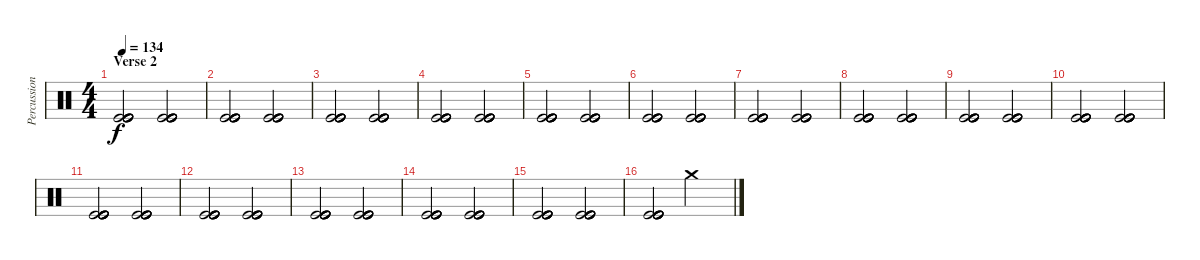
\track ("Percussion" "Percussion") {instrument percussion}
\staff {score}
\articulation defaults
\ts (4 4)
\section ("" "Verse 2")
\tempo 134
\clef neutral
\ks c
("Kick (hit)" "Kick (hit)" "Kick (hit)" "Kick (hit)" "Kick (hit)" "Kick (hit)").2{dy f} ("Kick (hit)" "Kick (hit)" "Kick (hit)" "Kick (hit)" "Kick (hit)" "Kick (hit)").2 |
("Kick (hit)" "Kick (hit)" "Kick (hit)" "Kick (hit)" "Kick (hit)" "Kick (hit)").2 ("Kick (hit)" "Kick (hit)" "Kick (hit)" "Kick (hit)" "Kick (hit)" "Kick (hit)").2 |
("Kick (hit)" "Kick (hit)" "Kick (hit)" "Kick (hit)" "Kick (hit)" "Kick (hit)").2 ("Kick (hit)" "Kick (hit)" "Kick (hit)" "Kick (hit)" "Kick (hit)" "Kick (hit)").2 |
("Kick (hit)" "Kick (hit)" "Kick (hit)" "Kick (hit)" "Kick (hit)" "Kick (hit)").2 ("Kick (hit)" "Kick (hit)" "Kick (hit)" "Kick (hit)" "Kick (hit)" "Kick (hit)").2 |
("Kick (hit)" "Kick (hit)" "Kick (hit)" "Kick (hit)" "Kick (hit)" "Kick (hit)").2 ("Kick (hit)" "Kick (hit)" "Kick (hit)" "Kick (hit)" "Kick (hit)" "Kick (hit)").2 |
("Kick (hit)" "Kick (hit)" "Kick (hit)" "Kick (hit)" "Kick (hit)" "Kick (hit)").2 ("Kick (hit)" "Kick (hit)" "Kick (hit)" "Kick (hit)" "Kick (hit)" "Kick (hit)").2 |
("Kick (hit)" "Kick (hit)" "Kick (hit)" "Kick (hit)" "Kick (hit)" "Kick (hit)").2 ("Kick (hit)" "Kick (hit)" "Kick (hit)" "Kick (hit)" "Kick (hit)" "Kick (hit)").2 |
("Kick (hit)" "Kick (hit)" "Kick (hit)" "Kick (hit)" "Kick (hit)" "Kick (hit)").2 ("Kick (hit)" "Kick (hit)" "Kick (hit)" "Kick (hit)" "Kick (hit)" "Kick (hit)").2 |
("Kick (hit)" "Kick (hit)" "Kick (hit)" "Kick (hit)" "Kick (hit)" "Kick (hit)").2 ("Kick (hit)" "Kick (hit)" "Kick (hit)" "Kick (hit)" "Kick (hit)" "Kick (hit)").2 |
("Kick (hit)" "Kick (hit)" "Kick (hit)" "Kick (hit)" "Kick (hit)" "Kick (hit)").2 ("Kick (hit)" "Kick (hit)" "Kick (hit)" "Kick (hit)" "Kick (hit)" "Kick (hit)").2 |
("Kick (hit)" "Kick (hit)" "Kick (hit)" "Kick (hit)" "Kick (hit)" "Kick (hit)").2 ("Kick (hit)" "Kick (hit)" "Kick (hit)" "Kick (hit)" "Kick (hit)" "Kick (hit)").2 |
("Kick (hit)" "Kick (hit)" "Kick (hit)" "Kick (hit)" "Kick (hit)" "Kick (hit)").2 ("Kick (hit)" "Kick (hit)" "Kick (hit)" "Kick (hit)" "Kick (hit)" "Kick (hit)").2 |
("Kick (hit)" "Kick (hit)" "Kick (hit)" "Kick (hit)" "Kick (hit)" "Kick (hit)").2 ("Kick (hit)" "Kick (hit)" "Kick (hit)" "Kick (hit)" "Kick (hit)" "Kick (hit)").2 |
("Kick (hit)" "Kick (hit)" "Kick (hit)" "Kick (hit)" "Kick (hit)" "Kick (hit)").2 ("Kick (hit)" "Kick (hit)" "Kick (hit)" "Kick (hit)" "Kick (hit)" "Kick (hit)").2 |
("Kick (hit)" "Kick (hit)" "Kick (hit)" "Kick (hit)" "Kick (hit)" "Kick (hit)").2 ("Kick (hit)" "Kick (hit)" "Kick (hit)" "Kick (hit)" "Kick (hit)" "Kick (hit)").2 |
("Kick (hit)" "Kick (hit)" "Kick (hit)" "Kick (hit)" "Kick (hit)" "Kick (hit)").2{volume 8} "Crash medium (hit)".2{volume 16}
